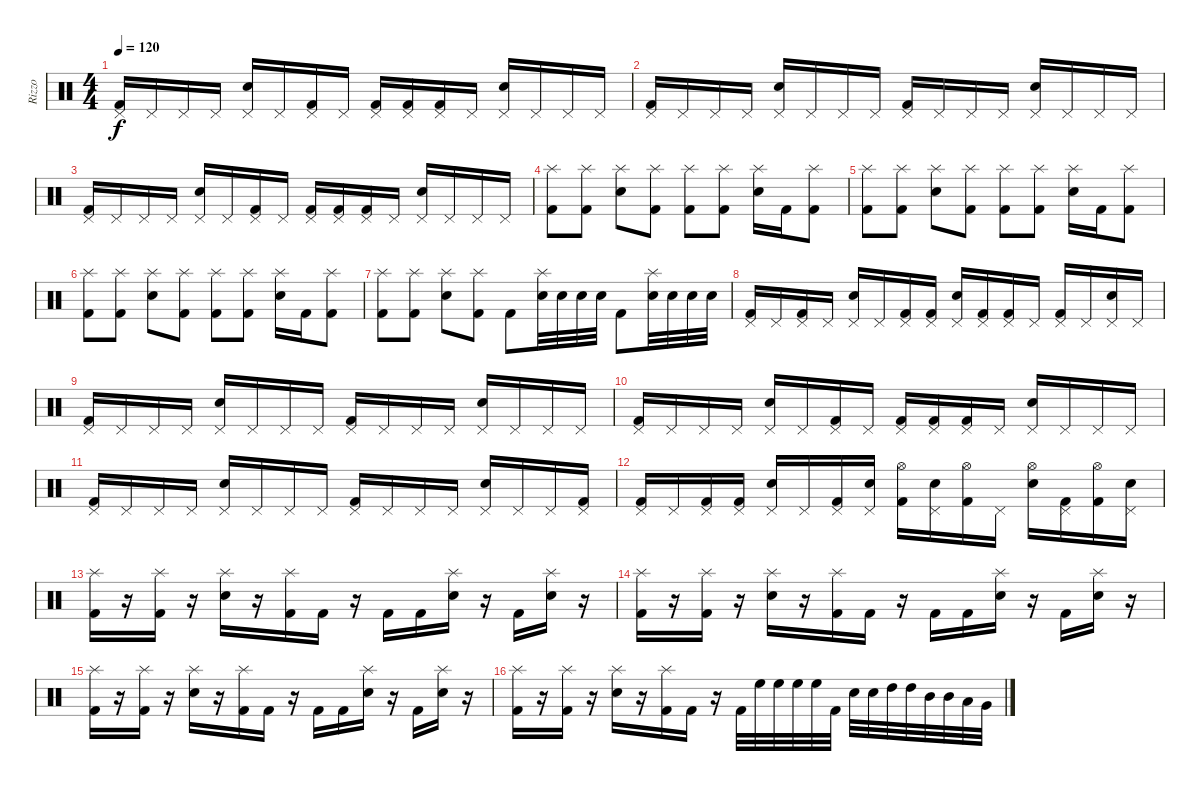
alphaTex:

\track ("Rizzo" "Rizzo") {instrument percussion}
\staff {score}
\articulation defaults
\ts (4 4)
\tempo 120
\clef neutral
\ks c
("Kick (hit) 2" "Pedal Hi-Hat (hit)").16{dy f} "Pedal Hi-Hat (hit)".16 "Pedal Hi-Hat (hit)".16 "Pedal Hi-Hat (hit)".16 ("Electric Snare (hit)" "Pedal Hi-Hat (hit)").16 "Pedal Hi-Hat (hit)".16 ("Kick (hit) 2" "Pedal Hi-Hat (hit)").16 "Pedal Hi-Hat (hit)".16 ("Kick (hit) 2" "Pedal Hi-Hat (hit)").16 ("Kick (hit) 2" "Pedal Hi-Hat (hit)").16 ("Kick (hit) 2" "Pedal Hi-Hat (hit)").16 "Pedal Hi-Hat (hit)".16 ("Electric Snare (hit)" "Pedal Hi-Hat (hit)").16 "Pedal Hi-Hat (hit)".16 "Pedal Hi-Hat (hit)".16 "Pedal Hi-Hat (hit)".16 |
("Kick (hit) 2" "Pedal Hi-Hat (hit)").16 "Pedal Hi-Hat (hit)".16 "Pedal Hi-Hat (hit)".16 "Pedal Hi-Hat (hit)".16 ("Electric Snare (hit)" "Pedal Hi-Hat (hit)").16 "Pedal Hi-Hat (hit)".16 "Pedal Hi-Hat (hit)".16 "Pedal Hi-Hat (hit)".16 ("Kick (hit) 2" "Pedal Hi-Hat (hit)").16 "Pedal Hi-Hat (hit)".16 "Pedal Hi-Hat (hit)".16 "Pedal Hi-Hat (hit)".16 ("Electric Snare (hit)" "Pedal Hi-Hat (hit)").16 "Pedal Hi-Hat (hit)".16 "Pedal Hi-Hat (hit)".16 "Pedal Hi-Hat (hit)".16 |
("Kick (hit) 2" "Pedal Hi-Hat (hit)").16 "Pedal Hi-Hat (hit)".16 "Pedal Hi-Hat (hit)".16 "Pedal Hi-Hat (hit)".16 ("Electric Snare (hit)" "Pedal Hi-Hat (hit)").16 "Pedal Hi-Hat (hit)".16 ("Kick (hit) 2" "Pedal Hi-Hat (hit)").16 "Pedal Hi-Hat (hit)".16 ("Kick (hit) 2" "Pedal Hi-Hat (hit)").16 ("Kick (hit) 2" "Pedal Hi-Hat (hit)").16 ("Kick (hit) 2" "Pedal Hi-Hat (hit)").16 "Pedal Hi-Hat (hit)".16 ("Electric Snare (hit)" "Pedal Hi-Hat (hit)").16 "Pedal Hi-Hat (hit)".16 "Pedal Hi-Hat (hit)".16 "Pedal Hi-Hat (hit)".16 |
("Kick (hit) 2" "Splash (hit)").8 ("Kick (hit) 2" "Splash (hit)").8 ("Electric Snare (hit)" "Splash (hit)").8 ("Kick (hit) 2" "Splash (hit)").8 ("Kick (hit) 2" "Splash (hit)").8 ("Kick (hit) 2" "Splash (hit)").8 ("Electric Snare (hit)" "Splash (hit)").16 "Kick (hit) 2".16 ("Kick (hit) 2" "Splash (hit)").8 |
("Kick (hit) 2" "Splash (hit)").8 ("Kick (hit) 2" "Splash (hit)").8 ("Electric Snare (hit)" "Splash (hit)").8 ("Kick (hit) 2" "Splash (hit)").8 ("Kick (hit) 2" "Splash (hit)").8 ("Kick (hit) 2" "Splash (hit)").8 ("Electric Snare (hit)" "Splash (hit)").16 "Kick (hit) 2".16 ("Kick (hit) 2" "Splash (hit)").8 |
("Kick (hit) 2" "Splash (hit)").8 ("Kick (hit) 2" "Splash (hit)").8 ("Electric Snare (hit)" "Splash (hit)").8 ("Kick (hit) 2" "Splash (hit)").8 ("Kick (hit) 2" "Splash (hit)").8 ("Kick (hit) 2" "Splash (hit)").8 ("Electric Snare (hit)" "Splash (hit)").16 "Kick (hit) 2".16 ("Kick (hit) 2" "Splash (hit)").8 |
("Kick (hit) 2" "Splash (hit)").8 ("Kick (hit) 2" "Splash (hit)").8 ("Electric Snare (hit)" "Splash (hit)").8 ("Kick (hit) 2" "Splash (hit)").8 "Kick (hit) 2".8 ("Electric Snare (hit)" "Splash (hit)").32 "Electric Snare (hit)".32 "Electric Snare (hit)".32 "Electric Snare (hit)".32 "Kick (hit) 2".8 ("Electric Snare (hit)" "Splash (hit)").32 "Electric Snare (hit)".32 "Electric Snare (hit)".32 "Electric Snare (hit)".32 |
("Kick (hit) 2" "Pedal Hi-Hat (hit)").16 "Pedal Hi-Hat (hit)".16 ("Kick (hit) 2" "Pedal Hi-Hat (hit)").16 "Pedal Hi-Hat (hit)".16 ("Electric Snare (hit)" "Pedal Hi-Hat (hit)").16 "Pedal Hi-Hat (hit)".16 ("Kick (hit) 2" "Pedal Hi-Hat (hit)").16 ("Kick (hit) 2" "Pedal Hi-Hat (hit)").16 ("Electric Snare (hit)" "Pedal Hi-Hat (hit)").16 ("Kick (hit) 2" "Pedal Hi-Hat (hit)").16 ("Kick (hit) 2" "Pedal Hi-Hat (hit)").16 "Pedal Hi-Hat (hit)".16 ("Kick (hit) 2" "Pedal Hi-Hat (hit)").16 "Pedal Hi-Hat (hit)".16 ("Electric Snare (hit)" "Pedal Hi-Hat (hit)").16 "Pedal Hi-Hat (hit)".16 |
("Kick (hit) 2" "Pedal Hi-Hat (hit)").16 "Pedal Hi-Hat (hit)".16 "Pedal Hi-Hat (hit)".16 "Pedal Hi-Hat (hit)".16 ("Electric Snare (hit)" "Pedal Hi-Hat (hit)").16 "Pedal Hi-Hat (hit)".16 "Pedal Hi-Hat (hit)".16 "Pedal Hi-Hat (hit)".16 ("Kick (hit) 2" "Pedal Hi-Hat (hit)").16 "Pedal Hi-Hat (hit)".16 "Pedal Hi-Hat (hit)".16 "Pedal Hi-Hat (hit)".16 ("Electric Snare (hit)" "Pedal Hi-Hat (hit)").16 "Pedal Hi-Hat (hit)".16 "Pedal Hi-Hat (hit)".16 "Pedal Hi-Hat (hit)".16 |
("Kick (hit) 2" "Pedal Hi-Hat (hit)").16 "Pedal Hi-Hat (hit)".16 "Pedal Hi-Hat (hit)".16 "Pedal Hi-Hat (hit)".16 ("Electric Snare (hit)" "Pedal Hi-Hat (hit)").16 "Pedal Hi-Hat (hit)".16 ("Kick (hit) 2" "Pedal Hi-Hat (hit)").16 "Pedal Hi-Hat (hit)".16 ("Kick (hit) 2" "Pedal Hi-Hat (hit)").16 ("Kick (hit) 2" "Pedal Hi-Hat (hit)").16 ("Kick (hit) 2" "Pedal Hi-Hat (hit)").16 "Pedal Hi-Hat (hit)".16 ("Electric Snare (hit)" "Pedal Hi-Hat (hit)").16 "Pedal Hi-Hat (hit)".16 "Pedal Hi-Hat (hit)".16 "Pedal Hi-Hat (hit)".16 |
("Kick (hit) 2" "Pedal Hi-Hat (hit)").16 "Pedal Hi-Hat (hit)".16 "Pedal Hi-Hat (hit)".16 "Pedal Hi-Hat (hit)".16 ("Electric Snare (hit)" "Pedal Hi-Hat (hit)").16 "Pedal Hi-Hat (hit)".16 "Pedal Hi-Hat (hit)".16 "Pedal Hi-Hat (hit)".16 ("Kick (hit) 2" "Pedal Hi-Hat (hit)").16 "Pedal Hi-Hat (hit)".16 "Pedal Hi-Hat (hit)".16 "Pedal Hi-Hat (hit)".16 ("Electric Snare (hit)" "Pedal Hi-Hat (hit)").16 "Pedal Hi-Hat (hit)".16 "Pedal Hi-Hat (hit)".16 ("Kick (hit) 2" "Pedal Hi-Hat (hit)").16 |
("Kick (hit) 2" "Pedal Hi-Hat (hit)").16 "Pedal Hi-Hat (hit)".16 ("Kick (hit) 2" "Pedal Hi-Hat (hit)").16 ("Kick (hit) 2" "Pedal Hi-Hat (hit)").16 ("Electric Snare (hit)" "Pedal Hi-Hat (hit)").16 "Pedal Hi-Hat (hit)".16 ("Kick (hit) 2" "Pedal Hi-Hat (hit)").16 ("Electric Snare (hit)" "Pedal Hi-Hat (hit)").16 ("Kick (hit) 2" "Hi-Hat (open)").16 ("Electric Snare (hit)" "Pedal Hi-Hat (hit)").16 ("Kick (hit) 2" "Hi-Hat (open)").16 "Pedal Hi-Hat (hit)".16 ("Electric Snare (hit)" "Hi-Hat (open)").16 ("Kick (hit) 2" "Pedal Hi-Hat (hit)").16 ("Kick (hit) 2" "Hi-Hat (open)").16 ("Electric Snare (hit)" "Pedal Hi-Hat (hit)").16 |
("Kick (hit) 2" "Splash (hit)").16 r.16 ("Kick (hit) 2" "Splash (hit)").16 r.16 ("Electric Snare (hit)" "Splash (hit)").16 r.16 ("Kick (hit) 2" "Splash (hit)").16 "Kick (hit) 2".16 r.16 "Kick (hit) 2".16 "Kick (hit) 2".16 ("Electric Snare (hit)" "Splash (hit)").16 r.16 "Kick (hit) 2".16 ("Electric Snare (hit)" "Splash (hit)").16 r.16 |
("Kick (hit) 2" "Splash (hit)").16 r.16 ("Kick (hit) 2" "Splash (hit)").16 r.16 ("Electric Snare (hit)" "Splash (hit)").16 r.16 ("Kick (hit) 2" "Splash (hit)").16 "Kick (hit) 2".16 r.16 "Kick (hit) 2".16 "Kick (hit) 2".16 ("Electric Snare (hit)" "Splash (hit)").16 r.16 "Kick (hit) 2".16 ("Electric Snare (hit)" "Splash (hit)").16 r.16 |
("Kick (hit) 2" "Splash (hit)").16 r.16 ("Kick (hit) 2" "Splash (hit)").16 r.16 ("Electric Snare (hit)" "Splash (hit)").16 r.16 ("Kick (hit) 2" "Splash (hit)").16 "Kick (hit) 2".16 r.16 "Kick (hit) 2".16 "Kick (hit) 2".16 ("Electric Snare (hit)" "Splash (hit)").16 r.16 "Kick (hit) 2".16 ("Electric Snare (hit)" "Splash (hit)").16 r.16 |
("Kick (hit) 2" "Splash (hit)").16 r.16 ("Kick (hit) 2" "Splash (hit)").16 r.16 ("Electric Snare (hit)" "Splash (hit)").16 r.16 ("Kick (hit) 2" "Splash (hit)").16 "Kick (hit) 2".16 r.16 "Kick (hit) 2".32 "High Floor Tom (hit)".32 "High Floor Tom (hit)".32 "High Floor Tom (hit)".32 "High Floor Tom (hit)".32 "Kick (hit) 2".32 "Electric Snare (hit)".32 "Electric Snare (hit)".32 "High Tom (hit)".32 "High Tom (hit)".32 "Mid Tom (hit)".32 "Mid Tom (hit)".32 "Low Tom (hit)".32 "Very Low Tom (hit)".32
